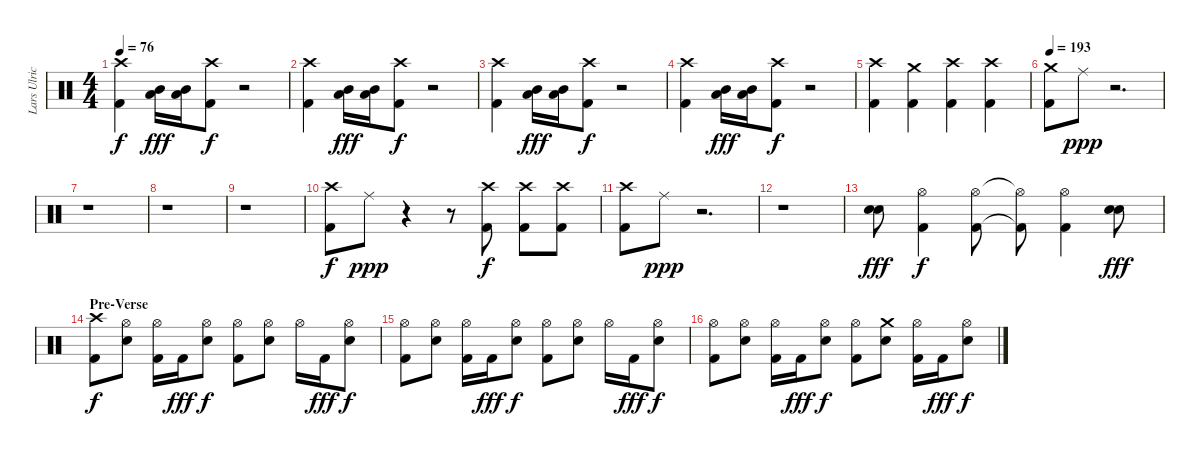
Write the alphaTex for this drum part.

\track ("Lars Ulrich - Drums" "Lars Ulric") {instrument percussion}
\staff {score}
\articulation defaults
\ts (4 4)
\tempo 76
\clef neutral
\ks c
("Crash high (hit)" "Kick (hit) 2").4{dy f} ("Mid Tom (hit)" "Low Tom (hit)").16{dy fff} ("Mid Tom (hit)" "Low Tom (hit)").16 ("Crash high (hit)" "Kick (hit) 2").8{dy f} r.2 |
("Crash high (hit)" "Kick (hit) 2").4 ("Mid Tom (hit)" "Low Tom (hit)").16{dy fff} ("Mid Tom (hit)" "Low Tom (hit)").16 ("Crash high (hit)" "Kick (hit) 2").8{dy f} r.2 |
("Crash high (hit)" "Kick (hit) 2").4 ("Mid Tom (hit)" "Low Tom (hit)").16{dy fff} ("Mid Tom (hit)" "Low Tom (hit)").16 ("Crash high (hit)" "Kick (hit) 2").8{dy f} r.2 |
("Crash high (hit)" "Kick (hit) 2").4 ("Mid Tom (hit)" "Low Tom (hit)").16{dy fff} ("Mid Tom (hit)" "Low Tom (hit)").16 ("Crash high (hit)" "Kick (hit) 2").8{dy f} r.2 |
("Crash high (hit)" "Kick (hit) 2").4 ("Crash medium (hit)" "Kick (hit) 2").4 ("Crash high (hit)" "Kick (hit) 2").4 ("Crash high (hit)" "Kick (hit) 2").4 |
\tempo 193
("Crash medium (hit)" "Kick (hit) 2").8 "Ride (middle)".8{dy ppp} r.2{d} |
r.1 |
r.1 |
r.1 |
("Crash high (hit)" "Kick (hit) 2").8{dy f} "Ride (middle)".8{dy ppp} r.4 r.8 ("Crash high (hit)" "Kick (hit) 2").8{dy f} ("Crash high (hit)" "Kick (hit) 2").8 ("Crash high (hit)" "Kick (hit) 2").8 |
("Crash high (hit)" "Kick (hit) 2").8 "Ride (middle)".8{dy ppp} r.2{d} |
r.1 |
("Snare (hit) 2" "Snare (hit) 2").8{dy fff} ("Hi-Hat (open)" "Kick (hit) 2").4{dy f} ("Hi-Hat (open)" "Kick (hit) 2").8 ("Hi-Hat (open)"{t} "Kick (hit) 2"{t}).8 ("Hi-Hat (open)" "Kick (hit) 2").4 ("Snare (hit) 2" "Snare (hit) 2").8{dy fff} |
\section ("" "Pre-Verse")
("Crash high (hit)" "Kick (hit) 2").8{dy f} ("Hi-Hat (open)" "Snare (hit) 2").8 ("Hi-Hat (open)" "Kick (hit) 2").16 "Kick (hit) 2".16{dy fff} ("Hi-Hat (open)" "Snare (hit) 2").8{dy f} ("Hi-Hat (open)" "Kick (hit) 2").8 ("Hi-Hat (open)" "Snare (hit) 2").8 "Hi-Hat (open)".16 "Kick (hit) 2".16{dy fff} ("Hi-Hat (open)" "Snare (hit) 2").8{dy f} |
("Hi-Hat (open)" "Kick (hit) 2").8 ("Hi-Hat (open)" "Snare (hit) 2").8 ("Hi-Hat (open)" "Kick (hit) 2").16 "Kick (hit) 2".16{dy fff} ("Hi-Hat (open)" "Snare (hit) 2").8{dy f} ("Hi-Hat (open)" "Kick (hit) 2").8 ("Hi-Hat (open)" "Snare (hit) 2").8 "Hi-Hat (open)".16 "Kick (hit) 2".16{dy fff} ("Hi-Hat (open)" "Snare (hit) 2").8{dy f} |
("Hi-Hat (open)" "Kick (hit) 2").8 ("Hi-Hat (open)" "Snare (hit) 2").8 ("Hi-Hat (open)" "Kick (hit) 2").16 "Kick (hit) 2".16{dy fff} ("Hi-Hat (open)" "Snare (hit) 2").8{dy f} ("Hi-Hat (open)" "Kick (hit) 2").8 ("Crash medium (hit)" "Snare (hit) 2").8 ("Hi-Hat (open)" "Kick (hit) 2").16 "Kick (hit) 2".16{dy fff} ("Hi-Hat (open)" "Snare (hit) 2").8{dy f}
